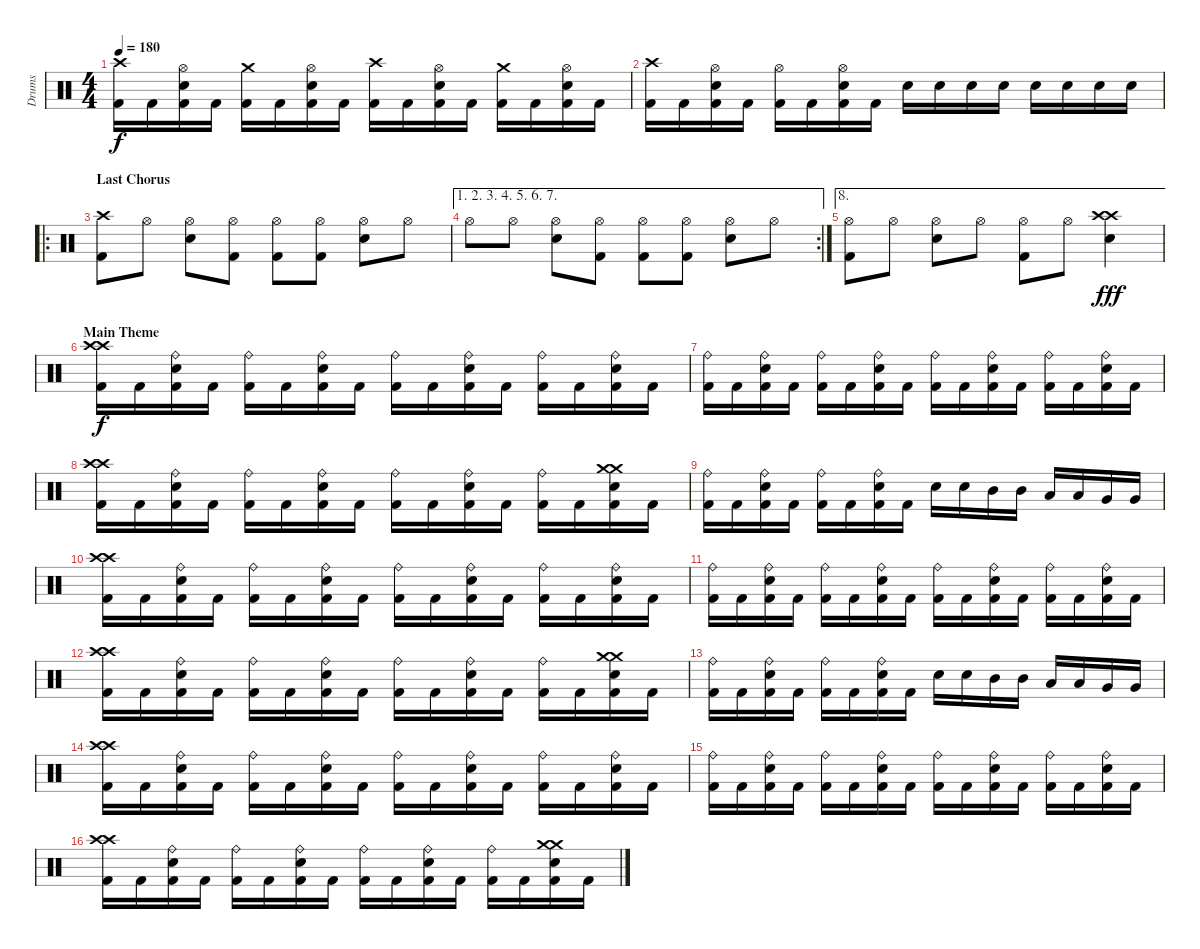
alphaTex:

\track ("Drums" "Drums") {instrument percussion}
\staff {score}
\articulation defaults
\ts (4 4)
\tempo 180
\clef neutral
\ks c
("Crash high (hit)" "Kick (hit) 2").16{dy f} "Kick (hit) 2".16 ("Hi-Hat (open)" "Snare (hit) 2" "Kick (hit) 2").16 "Kick (hit) 2".16 ("Crash medium (hit)" "Kick (hit) 2").16 "Kick (hit) 2".16 ("Hi-Hat (open)" "Snare (hit) 2" "Kick (hit) 2").16 "Kick (hit) 2".16 ("Crash high (hit)" "Kick (hit) 2").16 "Kick (hit) 2".16 ("Hi-Hat (open)" "Snare (hit) 2" "Kick (hit) 2").16 "Kick (hit) 2".16 ("Crash medium (hit)" "Kick (hit) 2").16 "Kick (hit) 2".16 ("Hi-Hat (open)" "Snare (hit) 2" "Kick (hit) 2").16 "Kick (hit) 2".16 |
("Crash high (hit)" "Kick (hit) 2").16 "Kick (hit) 2".16 ("Hi-Hat (open)" "Snare (hit) 2" "Kick (hit) 2").16 "Kick (hit) 2".16 ("Hi-Hat (open)" "Kick (hit) 2").16 "Kick (hit) 2".16 ("Hi-Hat (open)" "Snare (hit) 2" "Kick (hit) 2").16 "Kick (hit) 2".16 "Snare (hit) 2".16 "Snare (hit) 2".16 "Snare (hit) 2".16 "Snare (hit) 2".16 "Snare (hit) 2".16 "Snare (hit) 2".16 "Snare (hit) 2".16 "Snare (hit) 2".16 |
\ro
\section ("" "Last Chorus")
("Crash high (hit)" "Kick (hit) 2").8 "Hi-Hat (open)".8 ("Hi-Hat (open)" "Snare (hit) 2").8 ("Hi-Hat (open)" "Kick (hit) 2").8 ("Hi-Hat (open)" "Kick (hit) 2").8 ("Hi-Hat (open)" "Kick (hit) 2").8 ("Hi-Hat (open)" "Snare (hit) 2").8 "Hi-Hat (open)".8 |
\ae (1 2 3 4 5 6 7)
\rc 2 "Hi-Hat (open)".8 "Hi-Hat (open)".8
("Hi-Hat (open)" "Snare (hit) 2").8 ("Hi-Hat (open)" "Kick (hit) 2").8 ("Hi-Hat (open)" "Kick (hit) 2").8 ("Hi-Hat (open)" "Kick (hit) 2").8 ("Hi-Hat (open)" "Snare (hit) 2").8 "Hi-Hat (open)".8 |
\ae 8
("Hi-Hat (open)" "Kick (hit) 2").8 "Hi-Hat (open)".8 ("Hi-Hat (open)" "Snare (hit) 2").8 "Hi-Hat (open)".8 ("Hi-Hat (open)" "Kick (hit) 2").8 "Hi-Hat (open)".8 ("Crash high (hit)" "Crash high (hit)" "Snare (hit) 2").4{dy fff} |
\section ("" "Main Theme")
("Crash high (hit)" "Crash high (hit)" "Kick (hit) 2").16{dy f} "Kick (hit) 2".16 ("Ride (bell)" "Snare (hit) 2" "Kick (hit) 2").16 "Kick (hit) 2".16 ("Ride (bell)" "Kick (hit) 2").16 "Kick (hit) 2".16 ("Ride (bell)" "Snare (hit) 2" "Kick (hit) 2").16 "Kick (hit) 2".16 ("Ride (bell)" "Kick (hit) 2").16 "Kick (hit) 2".16 ("Ride (bell)" "Snare (hit) 2" "Kick (hit) 2").16 "Kick (hit) 2".16 ("Ride (bell)" "Kick (hit) 2").16 "Kick (hit) 2".16 ("Ride (bell)" "Snare (hit) 2" "Kick (hit) 2").16 "Kick (hit) 2".16 |
("Ride (bell)" "Kick (hit) 2").16 "Kick (hit) 2".16 ("Ride (bell)" "Snare (hit) 2" "Kick (hit) 2").16 "Kick (hit) 2".16 ("Ride (bell)" "Kick (hit) 2").16 "Kick (hit) 2".16 ("Ride (bell)" "Snare (hit) 2" "Kick (hit) 2").16 "Kick (hit) 2".16 ("Ride (bell)" "Kick (hit) 2").16 "Kick (hit) 2".16 ("Ride (bell)" "Snare (hit) 2" "Kick (hit) 2").16 "Kick (hit) 2".16 ("Ride (bell)" "Kick (hit) 2").16 "Kick (hit) 2".16 ("Ride (bell)" "Snare (hit) 2" "Kick (hit) 2").16 "Kick (hit) 2".16 |
("Crash high (hit)" "Crash high (hit)" "Kick (hit) 2").16 "Kick (hit) 2".16 ("Ride (bell)" "Snare (hit) 2" "Kick (hit) 2").16 "Kick (hit) 2".16 ("Ride (bell)" "Kick (hit) 2").16 "Kick (hit) 2".16 ("Ride (bell)" "Snare (hit) 2" "Kick (hit) 2").16 "Kick (hit) 2".16 ("Ride (bell)" "Kick (hit) 2").16 "Kick (hit) 2".16 ("Ride (bell)" "Snare (hit) 2" "Kick (hit) 2").16 "Kick (hit) 2".16 ("Ride (bell)" "Kick (hit) 2").16 "Kick (hit) 2".16 ("Crash medium (hit)" "Crash medium (hit)" "Snare (hit) 2" "Kick (hit) 2").16 "Kick (hit) 2".16 |
("Ride (bell)" "Kick (hit) 2").16 "Kick (hit) 2".16 ("Ride (bell)" "Snare (hit) 2" "Kick (hit) 2").16 "Kick (hit) 2".16 ("Ride (bell)" "Kick (hit) 2").16 "Kick (hit) 2".16 ("Ride (bell)" "Snare (hit) 2" "Kick (hit) 2").16 "Kick (hit) 2".16 "Snare (hit) 2".16 "Snare (hit) 2".16 "Mid Tom (hit)".16 "Mid Tom (hit)".16 "Low Tom (hit)".16 "Low Tom (hit)".16 "Very Low Tom (hit)".16 "Very Low Tom (hit)".16 |
("Crash high (hit)" "Crash high (hit)" "Kick (hit) 2").16 "Kick (hit) 2".16 ("Ride (bell)" "Snare (hit) 2" "Kick (hit) 2").16 "Kick (hit) 2".16 ("Ride (bell)" "Kick (hit) 2").16 "Kick (hit) 2".16 ("Ride (bell)" "Snare (hit) 2" "Kick (hit) 2").16 "Kick (hit) 2".16 ("Ride (bell)" "Kick (hit) 2").16 "Kick (hit) 2".16 ("Ride (bell)" "Snare (hit) 2" "Kick (hit) 2").16 "Kick (hit) 2".16 ("Ride (bell)" "Kick (hit) 2").16 "Kick (hit) 2".16 ("Ride (bell)" "Snare (hit) 2" "Kick (hit) 2").16 "Kick (hit) 2".16 |
("Ride (bell)" "Kick (hit) 2").16 "Kick (hit) 2".16 ("Ride (bell)" "Snare (hit) 2" "Kick (hit) 2").16 "Kick (hit) 2".16 ("Ride (bell)" "Kick (hit) 2").16 "Kick (hit) 2".16 ("Ride (bell)" "Snare (hit) 2" "Kick (hit) 2").16 "Kick (hit) 2".16 ("Ride (bell)" "Kick (hit) 2").16 "Kick (hit) 2".16 ("Ride (bell)" "Snare (hit) 2" "Kick (hit) 2").16 "Kick (hit) 2".16 ("Ride (bell)" "Kick (hit) 2").16 "Kick (hit) 2".16 ("Ride (bell)" "Snare (hit) 2" "Kick (hit) 2").16 "Kick (hit) 2".16 |
("Crash high (hit)" "Crash high (hit)" "Kick (hit) 2").16 "Kick (hit) 2".16 ("Ride (bell)" "Snare (hit) 2" "Kick (hit) 2").16 "Kick (hit) 2".16 ("Ride (bell)" "Kick (hit) 2").16 "Kick (hit) 2".16 ("Ride (bell)" "Snare (hit) 2" "Kick (hit) 2").16 "Kick (hit) 2".16 ("Ride (bell)" "Kick (hit) 2").16 "Kick (hit) 2".16 ("Ride (bell)" "Snare (hit) 2" "Kick (hit) 2").16 "Kick (hit) 2".16 ("Ride (bell)" "Kick (hit) 2").16 "Kick (hit) 2".16 ("Crash medium (hit)" "Crash medium (hit)" "Snare (hit) 2" "Kick (hit) 2").16 "Kick (hit) 2".16 |
("Ride (bell)" "Kick (hit) 2").16 "Kick (hit) 2".16 ("Ride (bell)" "Snare (hit) 2" "Kick (hit) 2").16 "Kick (hit) 2".16 ("Ride (bell)" "Kick (hit) 2").16 "Kick (hit) 2".16 ("Ride (bell)" "Snare (hit) 2" "Kick (hit) 2").16 "Kick (hit) 2".16 "Snare (hit) 2".16 "Snare (hit) 2".16 "Mid Tom (hit)".16 "Mid Tom (hit)".16 "Low Tom (hit)".16 "Low Tom (hit)".16 "Very Low Tom (hit)".16 "Very Low Tom (hit)".16 |
("Crash high (hit)" "Crash high (hit)" "Kick (hit) 2").16 "Kick (hit) 2".16 ("Ride (bell)" "Snare (hit) 2" "Kick (hit) 2").16 "Kick (hit) 2".16 ("Ride (bell)" "Kick (hit) 2").16 "Kick (hit) 2".16 ("Ride (bell)" "Snare (hit) 2" "Kick (hit) 2").16 "Kick (hit) 2".16 ("Ride (bell)" "Kick (hit) 2").16 "Kick (hit) 2".16 ("Ride (bell)" "Snare (hit) 2" "Kick (hit) 2").16 "Kick (hit) 2".16 ("Ride (bell)" "Kick (hit) 2").16 "Kick (hit) 2".16 ("Ride (bell)" "Snare (hit) 2" "Kick (hit) 2").16 "Kick (hit) 2".16 |
("Ride (bell)" "Kick (hit) 2").16 "Kick (hit) 2".16 ("Ride (bell)" "Snare (hit) 2" "Kick (hit) 2").16 "Kick (hit) 2".16 ("Ride (bell)" "Kick (hit) 2").16 "Kick (hit) 2".16 ("Ride (bell)" "Snare (hit) 2" "Kick (hit) 2").16 "Kick (hit) 2".16 ("Ride (bell)" "Kick (hit) 2").16 "Kick (hit) 2".16 ("Ride (bell)" "Snare (hit) 2" "Kick (hit) 2").16 "Kick (hit) 2".16 ("Ride (bell)" "Kick (hit) 2").16 "Kick (hit) 2".16 ("Ride (bell)" "Snare (hit) 2" "Kick (hit) 2").16 "Kick (hit) 2".16 |
("Crash high (hit)" "Crash high (hit)" "Kick (hit) 2").16 "Kick (hit) 2".16 ("Ride (bell)" "Snare (hit) 2" "Kick (hit) 2").16 "Kick (hit) 2".16 ("Ride (bell)" "Kick (hit) 2").16 "Kick (hit) 2".16 ("Ride (bell)" "Snare (hit) 2" "Kick (hit) 2").16 "Kick (hit) 2".16 ("Ride (bell)" "Kick (hit) 2").16 "Kick (hit) 2".16 ("Ride (bell)" "Snare (hit) 2" "Kick (hit) 2").16 "Kick (hit) 2".16 ("Ride (bell)" "Kick (hit) 2").16 "Kick (hit) 2".16 ("Crash medium (hit)" "Crash medium (hit)" "Snare (hit) 2" "Kick (hit) 2").16 "Kick (hit) 2".16
